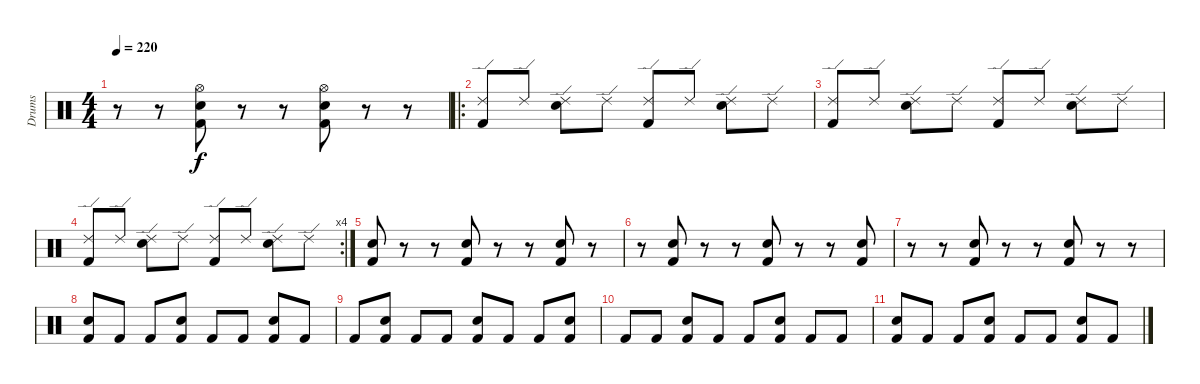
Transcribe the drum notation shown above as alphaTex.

\track ("Drums" "Drums") {instrument percussion}
\staff {score}
\articulation defaults
\ts (4 4)
\tempo 220
\clef neutral
\ks c
r.8{dy f} r.8 ("Kick (hit) 2" "Electric Snare (hit)" "Hi-Hat (open)").8 r.8 r.8 ("Kick (hit) 2" "Electric Snare (hit)" "Hi-Hat (open)").8 r.8 r.8 |
\ro
("Kick (hit) 2" "Ride (edge) 2").8 "Ride (edge) 2".8 ("Electric Snare (hit)" "Ride (edge) 2").8 "Ride (edge) 2".8 ("Kick (hit) 2" "Ride (edge) 2").8 "Ride (edge) 2".8 ("Electric Snare (hit)" "Ride (edge) 2").8 "Ride (edge) 2".8 |
("Kick (hit) 2" "Ride (edge) 2").8 "Ride (edge) 2".8 ("Electric Snare (hit)" "Ride (edge) 2").8 "Ride (edge) 2".8 ("Kick (hit) 2" "Ride (edge) 2").8 "Ride (edge) 2".8 ("Electric Snare (hit)" "Ride (edge) 2").8 "Ride (edge) 2".8 |
\rc 4
("Kick (hit) 2" "Ride (edge) 2").8 "Ride (edge) 2".8 ("Electric Snare (hit)" "Ride (edge) 2").8 "Ride (edge) 2".8 ("Kick (hit) 2" "Ride (edge) 2").8 "Ride (edge) 2".8 ("Electric Snare (hit)" "Ride (edge) 2").8 "Ride (edge) 2".8 |
("Kick (hit) 2" "Electric Snare (hit)").8 r.8 r.8 ("Kick (hit) 2" "Electric Snare (hit)").8 r.8 r.8 ("Kick (hit) 2" "Electric Snare (hit)").8 r.8 |
r.8 ("Kick (hit) 2" "Electric Snare (hit)").8 r.8 r.8 ("Kick (hit) 2" "Electric Snare (hit)").8 r.8 r.8 ("Kick (hit) 2" "Electric Snare (hit)").8 |
r.8 r.8 ("Kick (hit) 2" "Electric Snare (hit)").8 r.8 r.8 ("Kick (hit) 2" "Electric Snare (hit)").8 r.8 r.8 |
("Kick (hit) 2" "Electric Snare (hit)").8 "Kick (hit) 2".8 "Kick (hit) 2".8 ("Kick (hit) 2" "Electric Snare (hit)").8 "Kick (hit) 2".8 "Kick (hit) 2".8 ("Kick (hit) 2" "Electric Snare (hit)").8 "Kick (hit) 2".8 |
"Kick (hit) 2".8 ("Kick (hit) 2" "Electric Snare (hit)").8 "Kick (hit) 2".8 "Kick (hit) 2".8 ("Kick (hit) 2" "Electric Snare (hit)").8 "Kick (hit) 2".8 "Kick (hit) 2".8 ("Kick (hit) 2" "Electric Snare (hit)").8 |
"Kick (hit) 2".8 "Kick (hit) 2".8 ("Kick (hit) 2" "Electric Snare (hit)").8 "Kick (hit) 2".8 "Kick (hit) 2".8 ("Kick (hit) 2" "Electric Snare (hit)").8 "Kick (hit) 2".8 "Kick (hit) 2".8 |
("Kick (hit) 2" "Electric Snare (hit)").8 "Kick (hit) 2".8 "Kick (hit) 2".8 ("Kick (hit) 2" "Electric Snare (hit)").8 "Kick (hit) 2".8 "Kick (hit) 2".8 ("Kick (hit) 2" "Electric Snare (hit)").8 "Kick (hit) 2".8
